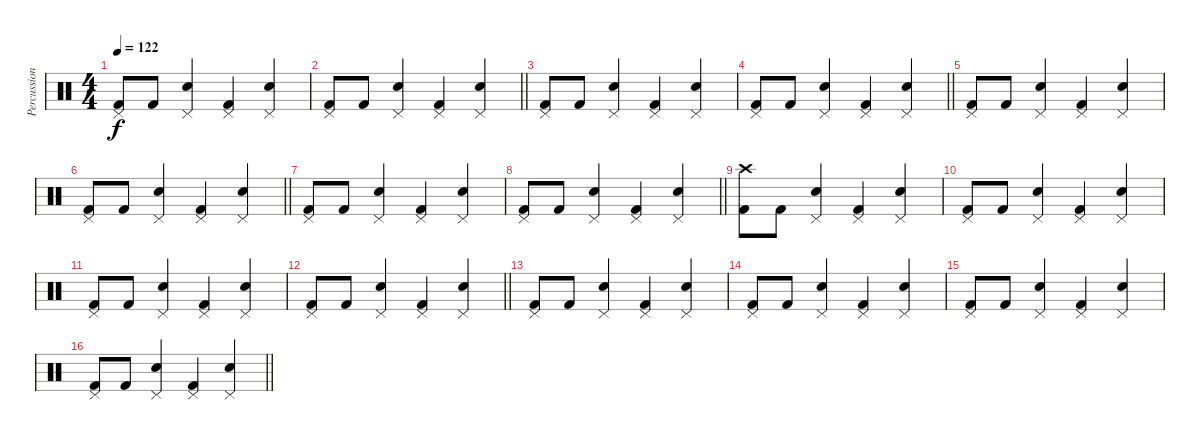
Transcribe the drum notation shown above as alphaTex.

\track ("Percussion" "Percussion") {instrument percussion}
\staff {score}
\articulation defaults
\ts (4 4)
\tempo 122
\clef neutral
\ks c
("Pedal Hi-Hat (hit)" "Kick (hit) 2").8{dy f} "Kick (hit) 2".8 ("Pedal Hi-Hat (hit)" "Electric Snare (hit)").4 ("Pedal Hi-Hat (hit)" "Kick (hit) 2").4 ("Pedal Hi-Hat (hit)" "Electric Snare (hit)").4 |
\barLineRight lightlight
("Pedal Hi-Hat (hit)" "Kick (hit) 2").8 "Kick (hit) 2".8 ("Pedal Hi-Hat (hit)" "Electric Snare (hit)").4 ("Pedal Hi-Hat (hit)" "Kick (hit) 2").4 ("Pedal Hi-Hat (hit)" "Electric Snare (hit)").4 |
("Pedal Hi-Hat (hit)" "Kick (hit) 2").8 "Kick (hit) 2".8 ("Pedal Hi-Hat (hit)" "Electric Snare (hit)").4 ("Pedal Hi-Hat (hit)" "Kick (hit) 2").4 ("Pedal Hi-Hat (hit)" "Electric Snare (hit)").4 |
\barLineRight lightlight
("Pedal Hi-Hat (hit)" "Kick (hit) 2").8 "Kick (hit) 2".8 ("Pedal Hi-Hat (hit)" "Electric Snare (hit)").4 ("Pedal Hi-Hat (hit)" "Kick (hit) 2").4 ("Pedal Hi-Hat (hit)" "Electric Snare (hit)").4 |
("Pedal Hi-Hat (hit)" "Kick (hit) 2").8 "Kick (hit) 2".8 ("Pedal Hi-Hat (hit)" "Electric Snare (hit)").4 ("Pedal Hi-Hat (hit)" "Kick (hit) 2").4 ("Pedal Hi-Hat (hit)" "Electric Snare (hit)").4 |
\barLineRight lightlight
("Pedal Hi-Hat (hit)" "Kick (hit) 2").8 "Kick (hit) 2".8 ("Pedal Hi-Hat (hit)" "Electric Snare (hit)").4 ("Pedal Hi-Hat (hit)" "Kick (hit) 2").4 ("Pedal Hi-Hat (hit)" "Electric Snare (hit)").4 |
("Pedal Hi-Hat (hit)" "Kick (hit) 2").8 "Kick (hit) 2".8 ("Pedal Hi-Hat (hit)" "Electric Snare (hit)").4 ("Pedal Hi-Hat (hit)" "Kick (hit) 2").4 ("Pedal Hi-Hat (hit)" "Electric Snare (hit)").4 |
\barLineRight lightlight
("Pedal Hi-Hat (hit)" "Kick (hit) 2").8 "Kick (hit) 2".8 ("Pedal Hi-Hat (hit)" "Electric Snare (hit)").4 ("Pedal Hi-Hat (hit)" "Kick (hit) 2").4 ("Pedal Hi-Hat (hit)" "Electric Snare (hit)").4 |
("Crash high (hit)" "Kick (hit) 2").8 "Kick (hit) 2".8 ("Pedal Hi-Hat (hit)" "Electric Snare (hit)").4 ("Pedal Hi-Hat (hit)" "Kick (hit) 2").4 ("Pedal Hi-Hat (hit)" "Electric Snare (hit)").4 |
("Pedal Hi-Hat (hit)" "Kick (hit) 2").8 "Kick (hit) 2".8 ("Pedal Hi-Hat (hit)" "Electric Snare (hit)").4 ("Pedal Hi-Hat (hit)" "Kick (hit) 2").4 ("Pedal Hi-Hat (hit)" "Electric Snare (hit)").4 |
("Pedal Hi-Hat (hit)" "Kick (hit) 2").8 "Kick (hit) 2".8 ("Pedal Hi-Hat (hit)" "Electric Snare (hit)").4 ("Pedal Hi-Hat (hit)" "Kick (hit) 2").4 ("Pedal Hi-Hat (hit)" "Electric Snare (hit)").4 |
\barLineRight lightlight
("Pedal Hi-Hat (hit)" "Kick (hit) 2").8 "Kick (hit) 2".8 ("Pedal Hi-Hat (hit)" "Electric Snare (hit)").4 ("Pedal Hi-Hat (hit)" "Kick (hit) 2").4 ("Pedal Hi-Hat (hit)" "Electric Snare (hit)").4 |
("Pedal Hi-Hat (hit)" "Kick (hit) 2").8 "Kick (hit) 2".8 ("Pedal Hi-Hat (hit)" "Electric Snare (hit)").4 ("Pedal Hi-Hat (hit)" "Kick (hit) 2").4 ("Pedal Hi-Hat (hit)" "Electric Snare (hit)").4 |
("Pedal Hi-Hat (hit)" "Kick (hit) 2").8 "Kick (hit) 2".8 ("Pedal Hi-Hat (hit)" "Electric Snare (hit)").4 ("Pedal Hi-Hat (hit)" "Kick (hit) 2").4 ("Pedal Hi-Hat (hit)" "Electric Snare (hit)").4 |
("Pedal Hi-Hat (hit)" "Kick (hit) 2").8 "Kick (hit) 2".8 ("Pedal Hi-Hat (hit)" "Electric Snare (hit)").4 ("Pedal Hi-Hat (hit)" "Kick (hit) 2").4 ("Pedal Hi-Hat (hit)" "Electric Snare (hit)").4 |
\barLineRight lightlight
("Pedal Hi-Hat (hit)" "Kick (hit) 2").8 "Kick (hit) 2".8 ("Pedal Hi-Hat (hit)" "Electric Snare (hit)").4 ("Pedal Hi-Hat (hit)" "Kick (hit) 2").4 ("Pedal Hi-Hat (hit)" "Electric Snare (hit)").4
